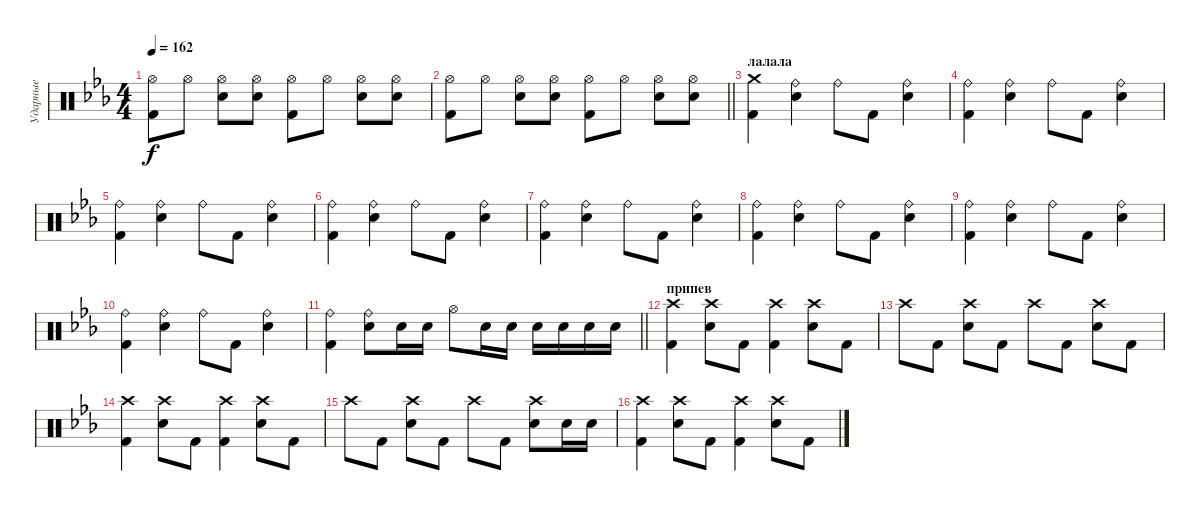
\track ("Ударные" "Ударные") {instrument percussion}
\staff {score}
\articulation defaults
\ts (4 4)
\tempo 162
\clef neutral
\ks cminor
("Hi-Hat (open)" "Kick (hit) 2").8{dy f} "Hi-Hat (open)".8 ("Hi-Hat (open)" "Snare (hit) 2").8 ("Hi-Hat (open)" "Snare (hit) 2").8 ("Hi-Hat (open)" "Kick (hit) 2").8 "Hi-Hat (open)".8 ("Hi-Hat (open)" "Snare (hit) 2").8 ("Hi-Hat (open)" "Snare (hit) 2").8 |
\barLineRight lightlight
("Hi-Hat (open)" "Kick (hit) 2").8 "Hi-Hat (open)".8 ("Hi-Hat (open)" "Snare (hit) 2").8 ("Hi-Hat (open)" "Snare (hit) 2").8 ("Hi-Hat (open)" "Kick (hit) 2").8 "Hi-Hat (open)".8 ("Hi-Hat (open)" "Snare (hit) 2").8 ("Hi-Hat (open)" "Snare (hit) 2").8 |
\section ("" "лалала")
("Crash medium (hit)" "Kick (hit) 2").4 ("Ride (bell)" "Snare (hit) 2").4 "Ride (bell)".8 "Kick (hit) 2".8 ("Ride (bell)" "Snare (hit) 2").4 |
("Ride (bell)" "Kick (hit) 2").4 ("Ride (bell)" "Snare (hit) 2").4 "Ride (bell)".8 "Kick (hit) 2".8 ("Ride (bell)" "Snare (hit) 2").4 |
("Ride (bell)" "Kick (hit) 2").4 ("Ride (bell)" "Snare (hit) 2").4 "Ride (bell)".8 "Kick (hit) 2".8 ("Ride (bell)" "Snare (hit) 2").4 |
("Ride (bell)" "Kick (hit) 2").4 ("Ride (bell)" "Snare (hit) 2").4 "Ride (bell)".8 "Kick (hit) 2".8 ("Ride (bell)" "Snare (hit) 2").4 |
("Ride (bell)" "Kick (hit) 2").4 ("Ride (bell)" "Snare (hit) 2").4 "Ride (bell)".8 "Kick (hit) 2".8 ("Ride (bell)" "Snare (hit) 2").4 |
("Ride (bell)" "Kick (hit) 2").4 ("Ride (bell)" "Snare (hit) 2").4 "Ride (bell)".8 "Kick (hit) 2".8 ("Ride (bell)" "Snare (hit) 2").4 |
("Ride (bell)" "Kick (hit) 2").4 ("Ride (bell)" "Snare (hit) 2").4 "Ride (bell)".8 "Kick (hit) 2".8 ("Ride (bell)" "Snare (hit) 2").4 |
("Ride (bell)" "Kick (hit) 2").4 ("Ride (bell)" "Snare (hit) 2").4 "Ride (bell)".8 "Kick (hit) 2".8 ("Ride (bell)" "Snare (hit) 2").4 |
\barLineRight lightlight
("Ride (bell)" "Kick (hit) 2").4 ("Ride (bell)" "Snare (hit) 2").8 "Snare (hit) 2".16 "Snare (hit) 2".16 "Hi-Hat (open)".8 "Snare (hit) 2".16 "Snare (hit) 2".16 "Snare (hit) 2".16 "Snare (hit) 2".16 "Snare (hit) 2".16 "Snare (hit) 2".16 |
\section ("" "припев")
("Crash high (hit)" "Kick (hit) 2").4 ("Crash high (hit)" "Snare (hit) 2").8 "Kick (hit) 2".8 ("Crash high (hit)" "Kick (hit) 2").4 ("Crash high (hit)" "Snare (hit) 2").8 "Kick (hit) 2".8 |
"Crash high (hit)".8 "Kick (hit) 2".8 ("Crash high (hit)" "Snare (hit) 2").8 "Kick (hit) 2".8 "Crash high (hit)".8 "Kick (hit) 2".8 ("Crash high (hit)" "Snare (hit) 2").8 "Kick (hit) 2".8 |
("Crash high (hit)" "Kick (hit) 2").4 ("Crash high (hit)" "Snare (hit) 2").8 "Kick (hit) 2".8 ("Crash high (hit)" "Kick (hit) 2").4 ("Crash high (hit)" "Snare (hit) 2").8 "Kick (hit) 2".8 |
"Crash high (hit)".8 "Kick (hit) 2".8 ("Crash high (hit)" "Snare (hit) 2").8 "Kick (hit) 2".8 "Crash high (hit)".8 "Kick (hit) 2".8 ("Crash high (hit)" "Snare (hit) 2").8 "Snare (hit) 2".16 "Snare (hit) 2".16 |
("Crash high (hit)" "Kick (hit) 2").4 ("Crash high (hit)" "Snare (hit) 2").8 "Kick (hit) 2".8 ("Crash high (hit)" "Kick (hit) 2").4 ("Crash high (hit)" "Snare (hit) 2").8 "Kick (hit) 2".8
